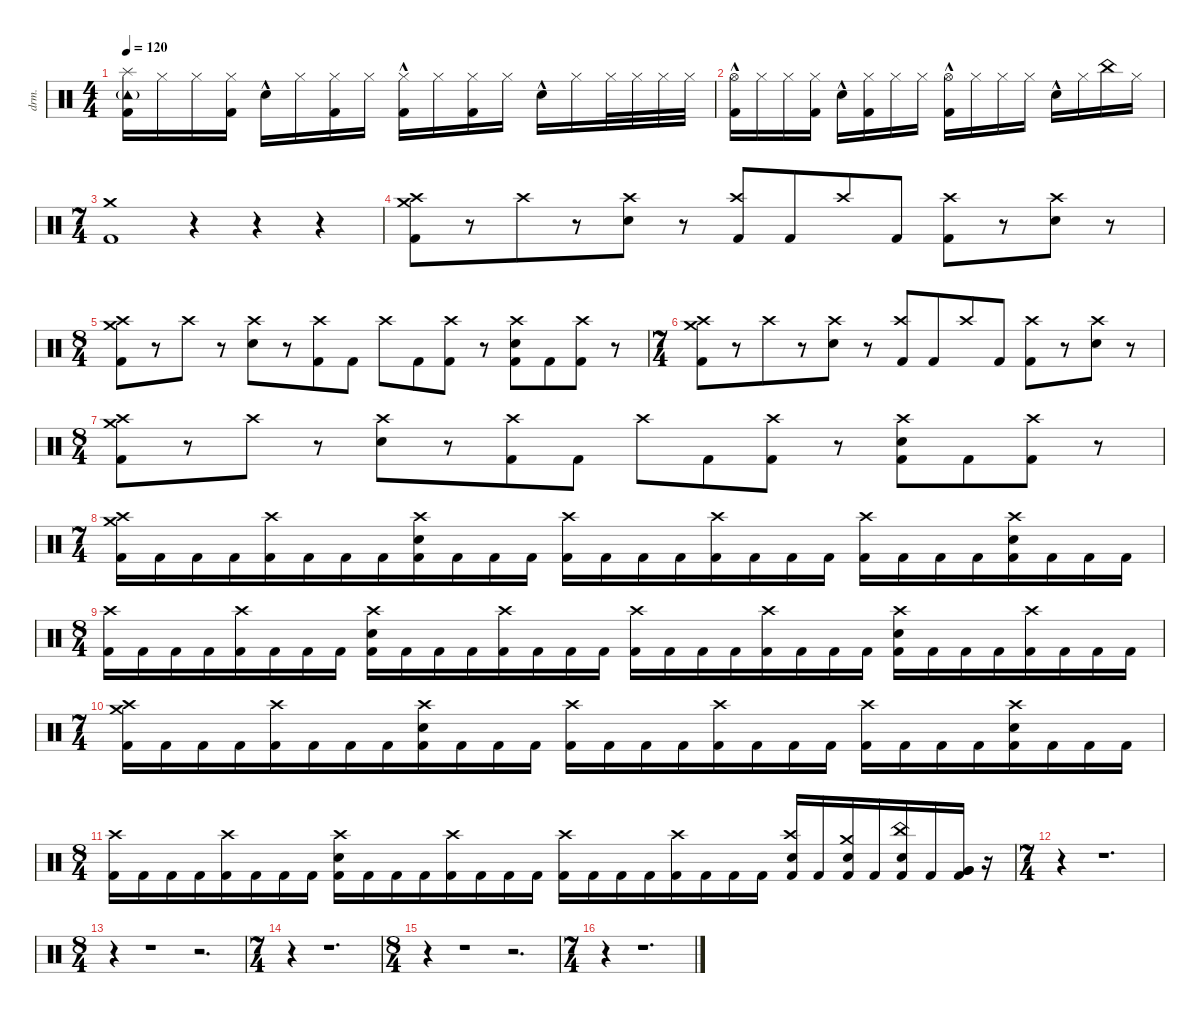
\defaultSystemsLayout 4
\hideDynamics
\bracketExtendMode nobrackets
\otherSystemsTrackNameOrientation horizontal
\track ("Percussion" "drm.") {instrument percussion}
\staff {score}
\articulation defaults
\ts (4 4)
\tempo 120
\clef neutral
\ks c
("Kick (hit) 2" "Tambourine (hit)"{g} "Splash (hit)").16{dy fff beam Down} "Hi-Hat (closed)".16{dy f beam Down} "Hi-Hat (closed)".16{beam Down} ("Kick (hit) 2" "Hi-Hat (closed)").16{dy fff beam Down} "Snare (hit) 2"{hac}.16{dy f beam Down} "Hi-Hat (closed)".16{beam Down} ("Kick (hit) 2" "Hi-Hat (closed)").16{dy fff beam Down} "Hi-Hat (closed)".16{dy f beam Down} ("Kick (hit) 2" "Hi-Hat (closed)"{hac}).16{dy fff beam Down} "Hi-Hat (closed)".16{dy f beam Down} ("Kick (hit) 2" "Hi-Hat (closed)").16{dy fff beam Down} "Hi-Hat (closed)".16{dy f beam Down} "Snare (hit) 2"{hac}.16{beam Down} "Hi-Hat (closed)".16{beam Down} "Hi-Hat (closed)".32{beam Down} "Hi-Hat (closed)".32{beam Down} "Hi-Hat (closed)".32{beam Down} "Hi-Hat (closed)".32{beam Down} |
("Kick (hit) 2" "Hi-Hat (open)"{hac}).16{dy fff beam Down} "Hi-Hat (closed)".16{dy f beam Down} "Hi-Hat (closed)".16{beam Down} ("Kick (hit) 2" "Hi-Hat (closed)").16{beam Down} "Snare (hit) 2"{hac}.16{beam Down} ("Kick (hit) 2" "Hi-Hat (closed)").16{beam Down} "Hi-Hat (closed)".16{beam Down} "Hi-Hat (closed)".16{beam Down} ("Kick (hit) 2" "Hi-Hat (open)"{hac}).16{dy fff beam Down} "Hi-Hat (closed)".16{dy f beam Down} "Hi-Hat (closed)".16{beam Down} "Hi-Hat (closed)".16{beam Down} "Snare (hit) 2"{hac}.16{beam Down} "Hi-Hat (closed)".16{beam Down} "China (hit)".16{beam Down} "Hi-Hat (closed)".16{beam Down} |
\ts (7 4)
\beaming (8 6 4 4)
("Kick (hit) 2" "Crash medium (hit)").1{beam Down} r.4{beam Down} r.4{beam Down} r.4{beam Down} |
("Kick (hit) 2" "Crash medium (hit)" "Crash high (hit)").8{dy fff beam Down} r.8{beam Down} "Crash high (hit)".8{dy f beam Down} r.8{beam Down} ("Snare (hit) 2" "Crash high (hit)").8{beam Down} r.8{beam Down} ("Kick (hit) 2" "Crash high (hit)").8{dy fff beam Up} "Kick (hit) 2".8{beam Up} "Crash high (hit)".8{beam Up} "Kick (hit) 2".8{beam Up} ("Kick (hit) 2" "Crash high (hit)").8{beam Down} r.8{beam Down} ("Snare (hit) 2" "Crash high (hit)").8{beam Down} r.8{beam Down} |
\ts (8 4)
\beaming (8 4 4 4 4)
("Kick (hit) 2" "Crash medium (hit)" "Crash high (hit)").8{beam Down} r.8{beam Down} "Crash high (hit)".8{dy f beam Down} r.8{beam Down} ("Snare (hit) 2" "Crash high (hit)").8{beam Down} r.8{beam Down} ("Kick (hit) 2" "Crash high (hit)").8{dy fff beam Down} "Kick (hit) 2".8{beam Down} "Crash high (hit)".8{beam Down} "Kick (hit) 2".8{beam Down} ("Kick (hit) 2" "Crash high (hit)").8{beam Down} r.8{beam Down} ("Kick (hit) 2" "Snare (hit) 2" "Crash high (hit)").8{beam Down} "Kick (hit) 2".8{beam Down} ("Kick (hit) 2" "Crash high (hit)").8{beam Down} r.8{beam Down} |
\ts (7 4)
\beaming (8 6 4 4)
("Kick (hit) 2" "Crash medium (hit)" "Crash high (hit)").8{beam Down} r.8{beam Down} "Crash high (hit)".8{dy f beam Down} r.8{beam Down} ("Snare (hit) 2" "Crash high (hit)").8{beam Down} r.8{beam Down} ("Kick (hit) 2" "Crash high (hit)").8{dy fff beam Up} "Kick (hit) 2".8{beam Up} "Crash high (hit)".8{beam Up} "Kick (hit) 2".8{beam Up} ("Kick (hit) 2" "Crash high (hit)").8{beam Down} r.8{beam Down} ("Snare (hit) 2" "Crash high (hit)").8{beam Down} r.8{beam Down} |
\ts (8 4)
\beaming (8 4 4 4 4)
("Kick (hit) 2" "Crash medium (hit)" "Crash high (hit)").8{beam Down} r.8{beam Down} "Crash high (hit)".8{dy f beam Down} r.8{beam Down} ("Snare (hit) 2" "Crash high (hit)").8{beam Down} r.8{beam Down} ("Kick (hit) 2" "Crash high (hit)").8{dy fff beam Down} "Kick (hit) 2".8{beam Down} "Crash high (hit)".8{beam Down} "Kick (hit) 2".8{beam Down} ("Kick (hit) 2" "Crash high (hit)").8{beam Down} r.8{beam Down} ("Kick (hit) 2" "Snare (hit) 2" "Crash high (hit)").8{beam Down} "Kick (hit) 2".8{beam Down} ("Kick (hit) 2" "Crash high (hit)").8{beam Down} r.8{beam Down} |
\ts (7 4)
\beaming (8 6 4 4)
("Kick (hit) 2" "Crash medium (hit)" "Crash high (hit)").16{beam Down} "Kick (hit) 2".16{beam Down} "Kick (hit) 2".16{beam Down} "Kick (hit) 2".16{beam Down} ("Kick (hit) 2" "Crash high (hit)").16{beam Down} "Kick (hit) 2".16{beam Down} "Kick (hit) 2".16{beam Down} "Kick (hit) 2".16{beam Down} ("Kick (hit) 2" "Snare (hit) 2" "Crash high (hit)").16{beam Down} "Kick (hit) 2".16{beam Down} "Kick (hit) 2".16{beam Down} "Kick (hit) 2".16{beam Down} ("Kick (hit) 2" "Crash high (hit)").16{beam Down} "Kick (hit) 2".16{beam Down} "Kick (hit) 2".16{beam Down} "Kick (hit) 2".16{beam Down} ("Kick (hit) 2" "Crash high (hit)").16{beam Down} "Kick (hit) 2".16{beam Down} "Kick (hit) 2".16{beam Down} "Kick (hit) 2".16{beam Down} ("Kick (hit) 2" "Crash high (hit)").16{beam Down} "Kick (hit) 2".16{beam Down} "Kick (hit) 2".16{beam Down} "Kick (hit) 2".16{beam Down} ("Kick (hit) 2" "Snare (hit) 2" "Crash high (hit)").16{beam Down} "Kick (hit) 2".16{beam Down} "Kick (hit) 2".16{beam Down} "Kick (hit) 2".16{beam Down} |
\ts (8 4)
\beaming (8 4 4 4 4)
("Kick (hit) 2" "Crash high (hit)").16{beam Down} "Kick (hit) 2".16{beam Down} "Kick (hit) 2".16{beam Down} "Kick (hit) 2".16{beam Down} ("Kick (hit) 2" "Crash high (hit)").16{beam Down} "Kick (hit) 2".16{beam Down} "Kick (hit) 2".16{beam Down} "Kick (hit) 2".16{beam Down} ("Kick (hit) 2" "Snare (hit) 2" "Crash high (hit)").16{beam Down} "Kick (hit) 2".16{beam Down} "Kick (hit) 2".16{beam Down} "Kick (hit) 2".16{beam Down} ("Kick (hit) 2" "Crash high (hit)").16{beam Down} "Kick (hit) 2".16{beam Down} "Kick (hit) 2".16{beam Down} "Kick (hit) 2".16{beam Down} ("Kick (hit) 2" "Crash high (hit)").16{beam Down} "Kick (hit) 2".16{beam Down} "Kick (hit) 2".16{beam Down} "Kick (hit) 2".16{beam Down} ("Kick (hit) 2" "Crash high (hit)").16{beam Down} "Kick (hit) 2".16{beam Down} "Kick (hit) 2".16{beam Down} "Kick (hit) 2".16{beam Down} ("Kick (hit) 2" "Snare (hit) 2" "Crash high (hit)").16{beam Down} "Kick (hit) 2".16{beam Down} "Kick (hit) 2".16{beam Down} "Kick (hit) 2".16{beam Down} ("Kick (hit) 2" "Crash high (hit)").16{beam Down} "Kick (hit) 2".16{beam Down} "Kick (hit) 2".16{beam Down} "Kick (hit) 2".16{beam Down} |
\ts (7 4)
\beaming (8 6 4 4)
("Kick (hit) 2" "Crash medium (hit)" "Crash high (hit)").16{beam Down} "Kick (hit) 2".16{beam Down} "Kick (hit) 2".16{beam Down} "Kick (hit) 2".16{beam Down} ("Kick (hit) 2" "Crash high (hit)").16{beam Down} "Kick (hit) 2".16{beam Down} "Kick (hit) 2".16{beam Down} "Kick (hit) 2".16{beam Down} ("Kick (hit) 2" "Snare (hit) 2" "Crash high (hit)").16{beam Down} "Kick (hit) 2".16{beam Down} "Kick (hit) 2".16{beam Down} "Kick (hit) 2".16{beam Down} ("Kick (hit) 2" "Crash high (hit)").16{beam Down} "Kick (hit) 2".16{beam Down} "Kick (hit) 2".16{beam Down} "Kick (hit) 2".16{beam Down} ("Kick (hit) 2" "Crash high (hit)").16{beam Down} "Kick (hit) 2".16{beam Down} "Kick (hit) 2".16{beam Down} "Kick (hit) 2".16{beam Down} ("Kick (hit) 2" "Crash high (hit)").16{beam Down} "Kick (hit) 2".16{beam Down} "Kick (hit) 2".16{beam Down} "Kick (hit) 2".16{beam Down} ("Kick (hit) 2" "Snare (hit) 2" "Crash high (hit)").16{beam Down} "Kick (hit) 2".16{beam Down} "Kick (hit) 2".16{beam Down} "Kick (hit) 2".16{beam Down} |
\ts (8 4)
\beaming (8 4 4 4 4)
("Kick (hit) 2" "Crash high (hit)").16{beam Down} "Kick (hit) 2".16{beam Down} "Kick (hit) 2".16{beam Down} "Kick (hit) 2".16{beam Down} ("Kick (hit) 2" "Crash high (hit)").16{beam Down} "Kick (hit) 2".16{beam Down} "Kick (hit) 2".16{beam Down} "Kick (hit) 2".16{beam Down} ("Kick (hit) 2" "Snare (hit) 2" "Crash high (hit)").16{beam Down} "Kick (hit) 2".16{beam Down} "Kick (hit) 2".16{beam Down} "Kick (hit) 2".16{beam Down} ("Kick (hit) 2" "Crash high (hit)").16{beam Down} "Kick (hit) 2".16{beam Down} "Kick (hit) 2".16{beam Down} "Kick (hit) 2".16{beam Down} ("Kick (hit) 2" "Crash high (hit)").16{beam Down} "Kick (hit) 2".16{beam Down} "Kick (hit) 2".16{beam Down} "Kick (hit) 2".16{beam Down} ("Kick (hit) 2" "Crash high (hit)").16{beam Down} "Kick (hit) 2".16{beam Down} "Kick (hit) 2".16{beam Down} "Kick (hit) 2".16{beam Down} ("Kick (hit) 2" "Snare (hit) 2" "Crash high (hit)").16{beam Up} "Kick (hit) 2".16{beam Up} ("Kick (hit) 2" "Snare (hit) 2" "Crash medium (hit)").16{beam Up} "Kick (hit) 2".16{beam Up} ("Kick (hit) 2" "Snare (hit) 2" "China (hit)").16{beam Up} "Kick (hit) 2".16{beam Up} ("Kick (hit) 2" "Very Low Tom (hit)" "Very Low Tom (hit)").16{beam Up} r.16{beam Up} |
\ts (7 4)
\beaming (8 4 4 4 4)
r.4{beam Down} r.1{d beam Down} |
\ts (8 4)
\beaming (8 4 4 4 4)
r.4{beam Down} r.1{beam Down} r.2{d beam Down} |
\ts (7 4)
\beaming (8 4 4 4 4)
r.4{beam Down} r.1{d beam Down} |
\ts (8 4)
\beaming (8 4 4 4 4)
r.4{beam Down} r.1{beam Down} r.2{d beam Down} |
\ts (7 4)
\beaming (8 4 4 4 4)
r.4{beam Down} r.1{d beam Down}
